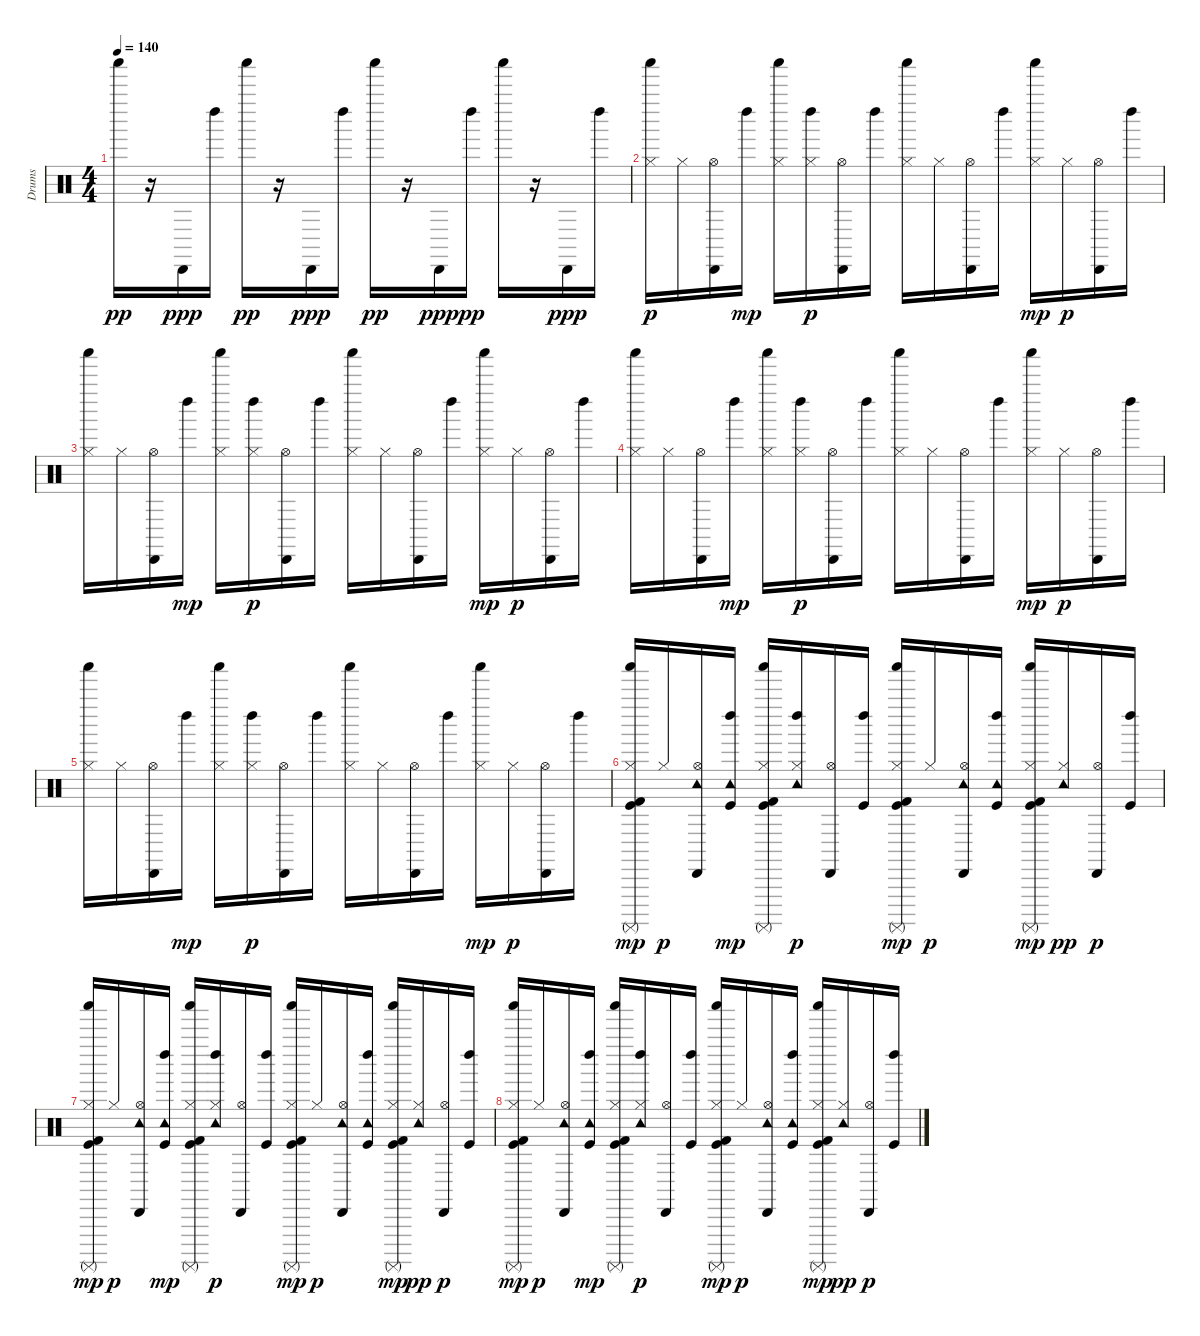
\track ("Drums" "Drums") {instrument percussion}
\staff {score}
\articulation defaults
\ts (4 4)
\tempo 140
\clef neutral
\ks c "Shaker (hit)".16{dy pp}
r.16 "Cabasa (hit)".16{dy ppp} "Left Maraca (hit)".16 "Shaker (hit)".16{dy pp} r.16 "Cabasa (hit)".16{dy ppp} "Left Maraca (hit)".16 "Shaker (hit)".16{dy pp} r.16 "Cabasa (hit)".16{dy ppp} "Left Maraca (hit)".16{dy pp} "Shaker (hit)".16 r.16 "Cabasa (hit)".16{dy ppp} "Left Maraca (hit)".16 |
("Hi-Hat (closed)" "Shaker (hit)").16{dy p} "Hi-Hat (closed)".16 ("Hi-Hat (open)" "Cabasa (hit)").16 "Left Maraca (hit)".16{dy mp} ("Hi-Hat (closed)" "Shaker (hit)").16 ("Hi-Hat (closed)" "Left Maraca (hit)").16{dy p} ("Hi-Hat (open)" "Cabasa (hit)").16 "Left Maraca (hit)".16 ("Hi-Hat (closed)" "Shaker (hit)").16 "Hi-Hat (closed)".16 ("Hi-Hat (open)" "Cabasa (hit)").16 "Left Maraca (hit)".16 ("Hi-Hat (closed)" "Shaker (hit)").16{dy mp} "Hi-Hat (closed)".16{dy p} ("Hi-Hat (open)" "Cabasa (hit)").16 "Left Maraca (hit)".16 |
("Hi-Hat (closed)" "Shaker (hit)").16 "Hi-Hat (closed)".16 ("Hi-Hat (open)" "Cabasa (hit)").16 "Left Maraca (hit)".16{dy mp} ("Hi-Hat (closed)" "Shaker (hit)").16 ("Hi-Hat (closed)" "Left Maraca (hit)").16{dy p} ("Hi-Hat (open)" "Cabasa (hit)").16 "Left Maraca (hit)".16 ("Hi-Hat (closed)" "Shaker (hit)").16 "Hi-Hat (closed)".16 ("Hi-Hat (open)" "Cabasa (hit)").16 "Left Maraca (hit)".16 ("Hi-Hat (closed)" "Shaker (hit)").16{dy mp} "Hi-Hat (closed)".16{dy p} ("Hi-Hat (open)" "Cabasa (hit)").16 "Left Maraca (hit)".16 |
("Hi-Hat (closed)" "Shaker (hit)").16 "Hi-Hat (closed)".16 ("Hi-Hat (open)" "Cabasa (hit)").16 "Left Maraca (hit)".16{dy mp} ("Hi-Hat (closed)" "Shaker (hit)").16 ("Hi-Hat (closed)" "Left Maraca (hit)").16{dy p} ("Hi-Hat (open)" "Cabasa (hit)").16 "Left Maraca (hit)".16 ("Hi-Hat (closed)" "Shaker (hit)").16 "Hi-Hat (closed)".16 ("Hi-Hat (open)" "Cabasa (hit)").16 "Left Maraca (hit)".16 ("Hi-Hat (closed)" "Shaker (hit)").16{dy mp} "Hi-Hat (closed)".16{dy p} ("Hi-Hat (open)" "Cabasa (hit)").16 "Left Maraca (hit)".16 |
("Hi-Hat (closed)" "Shaker (hit)").16 "Hi-Hat (closed)".16 ("Hi-Hat (open)" "Cabasa (hit)").16 "Left Maraca (hit)".16{dy mp} ("Hi-Hat (closed)" "Shaker (hit)").16 ("Hi-Hat (closed)" "Left Maraca (hit)").16{dy p} ("Hi-Hat (open)" "Cabasa (hit)").16 "Left Maraca (hit)".16 ("Hi-Hat (closed)" "Shaker (hit)").16 "Hi-Hat (closed)".16 ("Hi-Hat (open)" "Cabasa (hit)").16 "Left Maraca (hit)".16 ("Hi-Hat (closed)" "Shaker (hit)").16{dy mp} "Hi-Hat (closed)".16{dy p} ("Hi-Hat (open)" "Cabasa (hit)").16 "Left Maraca (hit)".16 |
("Kick (hit)" "Kick (hit) 2" "Hi-Hat (closed)" "Shaker (hit)" "Surdo (mute)").16{dy mp} "Hi-Hat (closed)".16{dy p} ("Hi-Hat (open)" "Tambourine (hit)" "Cabasa (hit)").16 ("Kick (hit)" "Tambourine (hit)" "Left Maraca (hit)").16{dy mp} ("Kick (hit)" "Kick (hit) 2" "Hi-Hat (closed)" "Shaker (hit)" "Surdo (mute)").16 ("Hi-Hat (closed)" "Tambourine (hit)" "Left Maraca (hit)").16{dy p} ("Hi-Hat (open)" "Cabasa (hit)").16 ("Kick (hit)" "Left Maraca (hit)").16 ("Kick (hit)" "Kick (hit) 2" "Hi-Hat (closed)" "Shaker (hit)" "Surdo (mute)").16{dy mp} "Hi-Hat (closed)".16{dy p} ("Hi-Hat (open)" "Tambourine (hit)" "Cabasa (hit)").16 ("Kick (hit)" "Tambourine (hit)" "Left Maraca (hit)").16 ("Kick (hit)" "Kick (hit) 2" "Hi-Hat (closed)" "Shaker (hit)" "Surdo (mute)").16{dy mp} ("Hi-Hat (closed)" "Tambourine (hit)").16{dy pp} ("Hi-Hat (open)" "Cabasa (hit)").16{dy p} ("Kick (hit)" "Left Maraca (hit)").16 |
("Kick (hit)" "Kick (hit) 2" "Hi-Hat (closed)" "Shaker (hit)" "Surdo (mute)").16{dy mp} "Hi-Hat (closed)".16{dy p} ("Hi-Hat (open)" "Tambourine (hit)" "Cabasa (hit)").16 ("Kick (hit)" "Tambourine (hit)" "Left Maraca (hit)").16{dy mp} ("Kick (hit)" "Kick (hit) 2" "Hi-Hat (closed)" "Shaker (hit)" "Surdo (mute)").16 ("Hi-Hat (closed)" "Tambourine (hit)" "Left Maraca (hit)").16{dy p} ("Hi-Hat (open)" "Cabasa (hit)").16 ("Kick (hit)" "Left Maraca (hit)").16 ("Kick (hit)" "Kick (hit) 2" "Hi-Hat (closed)" "Shaker (hit)" "Surdo (mute)").16{dy mp} "Hi-Hat (closed)".16{dy p} ("Hi-Hat (open)" "Tambourine (hit)" "Cabasa (hit)").16 ("Kick (hit)" "Tambourine (hit)" "Left Maraca (hit)").16 ("Kick (hit)" "Kick (hit) 2" "Hi-Hat (closed)" "Shaker (hit)" "Surdo (mute)").16{dy mp} ("Hi-Hat (closed)" "Tambourine (hit)").16{dy pp} ("Hi-Hat (open)" "Cabasa (hit)").16{dy p} ("Kick (hit)" "Left Maraca (hit)").16 |
("Kick (hit)" "Kick (hit) 2" "Hi-Hat (closed)" "Shaker (hit)" "Surdo (mute)").16{dy mp} "Hi-Hat (closed)".16{dy p} ("Hi-Hat (open)" "Tambourine (hit)" "Cabasa (hit)").16 ("Kick (hit)" "Tambourine (hit)" "Left Maraca (hit)").16{dy mp} ("Kick (hit)" "Kick (hit) 2" "Hi-Hat (closed)" "Shaker (hit)" "Surdo (mute)").16 ("Hi-Hat (closed)" "Tambourine (hit)" "Left Maraca (hit)").16{dy p} ("Hi-Hat (open)" "Cabasa (hit)").16 ("Kick (hit)" "Left Maraca (hit)").16 ("Kick (hit)" "Kick (hit) 2" "Hi-Hat (closed)" "Shaker (hit)" "Surdo (mute)").16{dy mp} "Hi-Hat (closed)".16{dy p} ("Hi-Hat (open)" "Tambourine (hit)" "Cabasa (hit)").16 ("Kick (hit)" "Tambourine (hit)" "Left Maraca (hit)").16 ("Kick (hit)" "Kick (hit) 2" "Hi-Hat (closed)" "Shaker (hit)" "Surdo (mute)").16{dy mp} ("Hi-Hat (closed)" "Tambourine (hit)").16{dy pp} ("Hi-Hat (open)" "Cabasa (hit)").16{dy p} ("Kick (hit)" "Left Maraca (hit)").16
